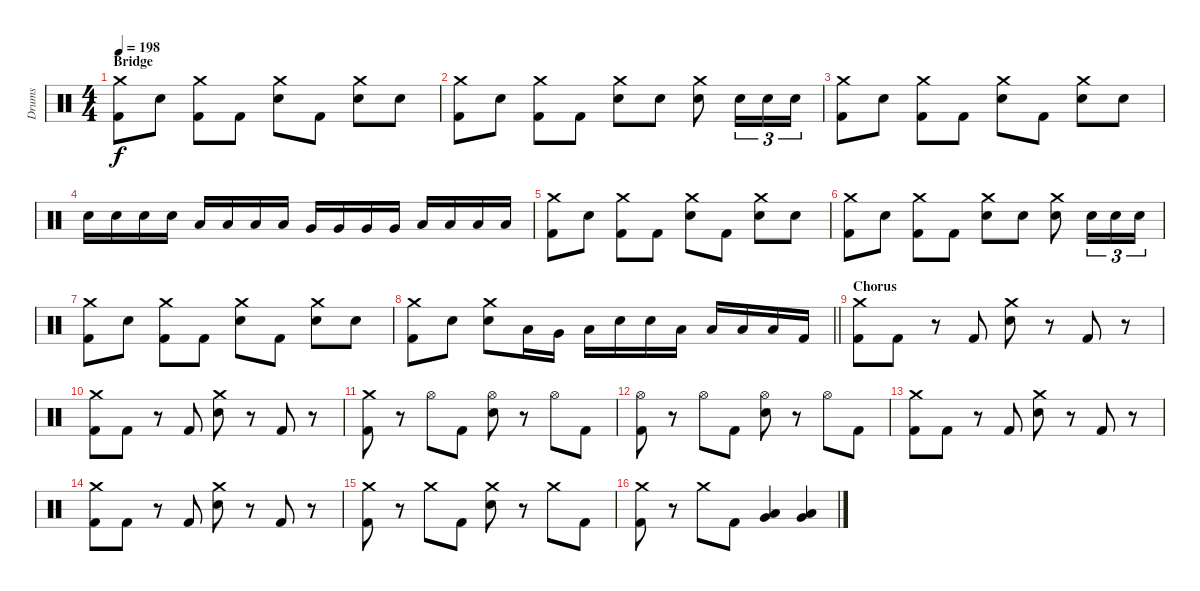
\track ("Drums" "Drums") {instrument percussion}
\staff {score}
\articulation defaults
\ts (4 4)
\section ("" "Bridge")
\tempo 198
\clef neutral
\ks c
("Crash medium (hit)" "Kick (hit) 2").8{dy f} "Electric Snare (hit)".8 ("Crash medium (hit)" "Kick (hit) 2").8 "Kick (hit) 2".8 ("Crash medium (hit)" "Electric Snare (hit)").8 "Kick (hit) 2".8 ("Crash medium (hit)" "Electric Snare (hit)").8 "Electric Snare (hit)".8 |
("Crash medium (hit)" "Kick (hit) 2").8 "Electric Snare (hit)".8 ("Crash medium (hit)" "Kick (hit) 2").8 "Kick (hit) 2".8 ("Crash medium (hit)" "Electric Snare (hit)").8 "Electric Snare (hit)".8 ("Crash medium (hit)" "Electric Snare (hit)").8 "Electric Snare (hit)".16{tu (3 2)} "Electric Snare (hit)".16{tu (3 2)} "Electric Snare (hit)".16{tu (3 2)} |
("Crash medium (hit)" "Kick (hit) 2").8 "Electric Snare (hit)".8 ("Crash medium (hit)" "Kick (hit) 2").8 "Kick (hit) 2".8 ("Crash medium (hit)" "Electric Snare (hit)").8 "Kick (hit) 2".8 ("Crash medium (hit)" "Electric Snare (hit)").8 "Electric Snare (hit)".8 |
"Electric Snare (hit)".16 "Electric Snare (hit)".16 "Electric Snare (hit)".16 "Electric Snare (hit)".16 "Low Tom (hit)".16 "Low Tom (hit)".16 "Low Tom (hit)".16 "Low Tom (hit)".16 "Very Low Tom (hit)".16 "Very Low Tom (hit)".16 "Very Low Tom (hit)".16 "Very Low Tom (hit)".16 "Low Floor Tom (hit)".16 "Low Floor Tom (hit)".16 "Low Floor Tom (hit)".16 "Low Floor Tom (hit)".16 |
("Crash medium (hit)" "Kick (hit) 2").8 "Electric Snare (hit)".8 ("Crash medium (hit)" "Kick (hit) 2").8 "Kick (hit) 2".8 ("Crash medium (hit)" "Electric Snare (hit)").8 "Kick (hit) 2".8 ("Crash medium (hit)" "Electric Snare (hit)").8 "Electric Snare (hit)".8 |
("Crash medium (hit)" "Kick (hit) 2").8 "Electric Snare (hit)".8 ("Crash medium (hit)" "Kick (hit) 2").8 "Kick (hit) 2".8 ("Crash medium (hit)" "Electric Snare (hit)").8 "Electric Snare (hit)".8 ("Crash medium (hit)" "Electric Snare (hit)").8 "Electric Snare (hit)".16{tu (3 2)} "Electric Snare (hit)".16{tu (3 2)} "Electric Snare (hit)".16{tu (3 2)} |
("Crash medium (hit)" "Kick (hit) 2").8 "Electric Snare (hit)".8 ("Crash medium (hit)" "Kick (hit) 2").8 "Kick (hit) 2".8 ("Crash medium (hit)" "Electric Snare (hit)").8 "Kick (hit) 2".8 ("Crash medium (hit)" "Electric Snare (hit)").8 "Electric Snare (hit)".8 |
\barLineRight lightlight
("Crash medium (hit)" "Kick (hit) 2").8 "Electric Snare (hit)".8 ("Crash medium (hit)" "Electric Snare (hit)").8 "Low Tom (hit)".16 "Very Low Tom (hit)".16 "Low Floor Tom (hit)".16 "Electric Snare (hit)".16 "Electric Snare (hit)".16 "Low Tom (hit)".16 "Low Tom (hit)".16 "Low Floor Tom (hit)".16 "Low Floor Tom (hit)".16 "Kick (hit) 2".16 |
\section ("" "Chorus")
("Crash medium (hit)" "Kick (hit) 2").8 "Kick (hit) 2".8 r.8 "Kick (hit) 2".8 ("Crash medium (hit)" "Electric Snare (hit)").8 r.8 "Kick (hit) 2".8 r.8 |
("Crash medium (hit)" "Kick (hit) 2").8 "Kick (hit) 2".8 r.8 "Kick (hit) 2".8 ("Crash medium (hit)" "Electric Snare (hit)").8 r.8 "Kick (hit) 2".8 r.8 |
("Crash medium (hit)" "Kick (hit) 2").8 r.8 "Hi-Hat (open)".8 "Kick (hit) 2".8 ("Hi-Hat (open)" "Electric Snare (hit)").8 r.8 "Hi-Hat (open)".8 "Kick (hit) 2".8 |
("Hi-Hat (open)" "Kick (hit) 2").8 r.8 "Hi-Hat (open)".8 "Kick (hit) 2".8 ("Hi-Hat (open)" "Electric Snare (hit)").8 r.8 "Hi-Hat (open)".8 "Kick (hit) 2".8 |
("Crash medium (hit)" "Kick (hit) 2").8 "Kick (hit) 2".8 r.8 "Kick (hit) 2".8 ("Crash medium (hit)" "Electric Snare (hit)").8 r.8 "Kick (hit) 2".8 r.8 |
("Crash medium (hit)" "Kick (hit) 2").8 "Kick (hit) 2".8 r.8 "Kick (hit) 2".8 ("Crash medium (hit)" "Electric Snare (hit)").8 r.8 "Kick (hit) 2".8 r.8 |
("Crash medium (hit)" "Kick (hit) 2").8 r.8 "Crash medium (hit)".8 "Kick (hit) 2".8 ("Crash medium (hit)" "Electric Snare (hit)").8 r.8 "Crash medium (hit)".8 "Kick (hit) 2".8 |
("Crash medium (hit)" "Kick (hit) 2").8 r.8 "Crash medium (hit)".8 "Kick (hit) 2".8 ("Low Tom (hit)" "Very Low Tom (hit)").4 ("Very Low Tom (hit)" "Low Floor Tom (hit)").4
